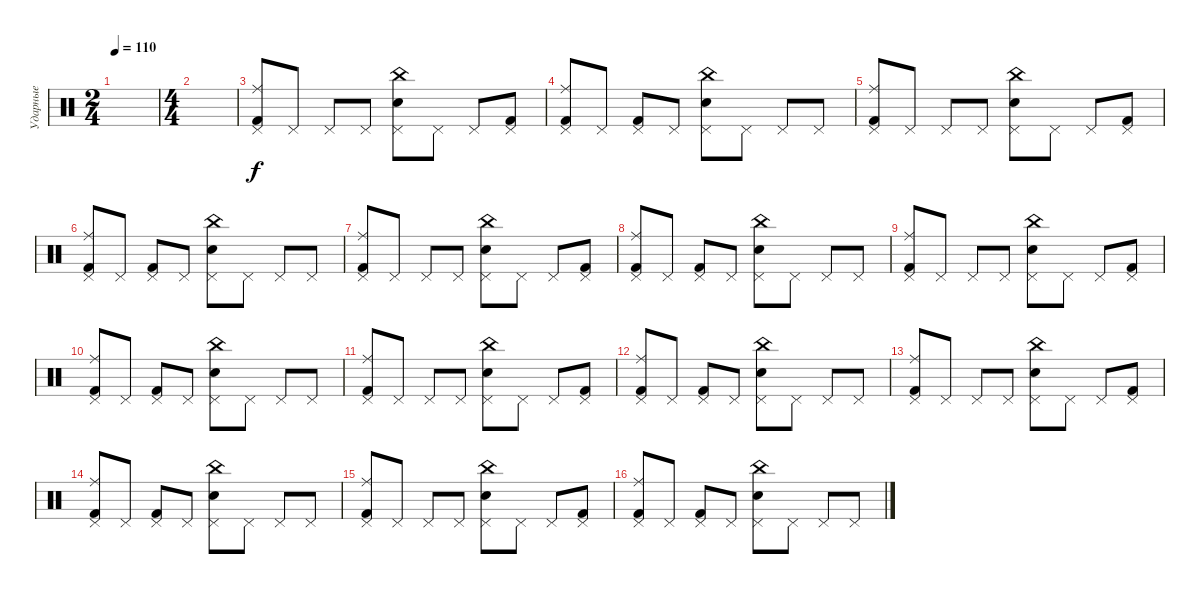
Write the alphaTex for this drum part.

\track ("Ударные" "Ударные") {instrument percussion}
\staff {score}
\articulation defaults
\ts (2 4)
\tempo 110
\clef neutral
\ks c
|
\ts (4 4)
|
("Pedal Hi-Hat (hit)" "Ride (middle)" "Kick (hit) 2").8 "Pedal Hi-Hat (hit)".8 "Pedal Hi-Hat (hit)".8 "Pedal Hi-Hat (hit)".8 ("Pedal Hi-Hat (hit)" "Electric Snare (hit)" "China (hit)").8 "Pedal Hi-Hat (hit)".8 "Pedal Hi-Hat (hit)".8 ("Pedal Hi-Hat (hit)" "Kick (hit) 2").8 |
("Pedal Hi-Hat (hit)" "Ride (middle)" "Kick (hit) 2").8 "Pedal Hi-Hat (hit)".8 ("Pedal Hi-Hat (hit)" "Kick (hit) 2").8 "Pedal Hi-Hat (hit)".8 ("Pedal Hi-Hat (hit)" "Electric Snare (hit)" "China (hit)").8 "Pedal Hi-Hat (hit)".8 "Pedal Hi-Hat (hit)".8 "Pedal Hi-Hat (hit)".8 |
("Pedal Hi-Hat (hit)" "Ride (middle)" "Kick (hit) 2").8 "Pedal Hi-Hat (hit)".8 "Pedal Hi-Hat (hit)".8 "Pedal Hi-Hat (hit)".8 ("Pedal Hi-Hat (hit)" "Electric Snare (hit)" "China (hit)").8 "Pedal Hi-Hat (hit)".8 "Pedal Hi-Hat (hit)".8 ("Pedal Hi-Hat (hit)" "Kick (hit) 2").8 |
("Pedal Hi-Hat (hit)" "Ride (middle)" "Kick (hit) 2").8 "Pedal Hi-Hat (hit)".8 ("Pedal Hi-Hat (hit)" "Kick (hit) 2").8 "Pedal Hi-Hat (hit)".8 ("Pedal Hi-Hat (hit)" "Electric Snare (hit)" "China (hit)").8 "Pedal Hi-Hat (hit)".8 "Pedal Hi-Hat (hit)".8 "Pedal Hi-Hat (hit)".8 |
("Pedal Hi-Hat (hit)" "Ride (middle)" "Kick (hit) 2").8 "Pedal Hi-Hat (hit)".8 "Pedal Hi-Hat (hit)".8 "Pedal Hi-Hat (hit)".8 ("Pedal Hi-Hat (hit)" "Electric Snare (hit)" "China (hit)").8 "Pedal Hi-Hat (hit)".8 "Pedal Hi-Hat (hit)".8 ("Pedal Hi-Hat (hit)" "Kick (hit) 2").8 |
("Pedal Hi-Hat (hit)" "Ride (middle)" "Kick (hit) 2").8 "Pedal Hi-Hat (hit)".8 ("Pedal Hi-Hat (hit)" "Kick (hit) 2").8 "Pedal Hi-Hat (hit)".8 ("Pedal Hi-Hat (hit)" "Electric Snare (hit)" "China (hit)").8 "Pedal Hi-Hat (hit)".8 "Pedal Hi-Hat (hit)".8 "Pedal Hi-Hat (hit)".8 |
("Pedal Hi-Hat (hit)" "Ride (middle)" "Kick (hit) 2").8 "Pedal Hi-Hat (hit)".8 "Pedal Hi-Hat (hit)".8 "Pedal Hi-Hat (hit)".8 ("Pedal Hi-Hat (hit)" "Electric Snare (hit)" "China (hit)").8 "Pedal Hi-Hat (hit)".8 "Pedal Hi-Hat (hit)".8 ("Pedal Hi-Hat (hit)" "Kick (hit) 2").8 |
("Pedal Hi-Hat (hit)" "Ride (middle)" "Kick (hit) 2").8 "Pedal Hi-Hat (hit)".8 ("Pedal Hi-Hat (hit)" "Kick (hit) 2").8 "Pedal Hi-Hat (hit)".8 ("Pedal Hi-Hat (hit)" "Electric Snare (hit)" "China (hit)").8 "Pedal Hi-Hat (hit)".8 "Pedal Hi-Hat (hit)".8 "Pedal Hi-Hat (hit)".8 |
("Pedal Hi-Hat (hit)" "Ride (middle)" "Kick (hit) 2").8 "Pedal Hi-Hat (hit)".8 "Pedal Hi-Hat (hit)".8 "Pedal Hi-Hat (hit)".8 ("Pedal Hi-Hat (hit)" "Electric Snare (hit)" "China (hit)").8 "Pedal Hi-Hat (hit)".8 "Pedal Hi-Hat (hit)".8 ("Pedal Hi-Hat (hit)" "Kick (hit) 2").8 |
("Pedal Hi-Hat (hit)" "Ride (middle)" "Kick (hit) 2").8 "Pedal Hi-Hat (hit)".8 ("Pedal Hi-Hat (hit)" "Kick (hit) 2").8 "Pedal Hi-Hat (hit)".8 ("Pedal Hi-Hat (hit)" "Electric Snare (hit)" "China (hit)").8 "Pedal Hi-Hat (hit)".8 "Pedal Hi-Hat (hit)".8 "Pedal Hi-Hat (hit)".8 |
("Pedal Hi-Hat (hit)" "Ride (middle)" "Kick (hit) 2").8 "Pedal Hi-Hat (hit)".8 "Pedal Hi-Hat (hit)".8 "Pedal Hi-Hat (hit)".8 ("Pedal Hi-Hat (hit)" "Electric Snare (hit)" "China (hit)").8 "Pedal Hi-Hat (hit)".8 "Pedal Hi-Hat (hit)".8 ("Pedal Hi-Hat (hit)" "Kick (hit) 2").8 |
("Pedal Hi-Hat (hit)" "Ride (middle)" "Kick (hit) 2").8 "Pedal Hi-Hat (hit)".8 ("Pedal Hi-Hat (hit)" "Kick (hit) 2").8 "Pedal Hi-Hat (hit)".8 ("Pedal Hi-Hat (hit)" "Electric Snare (hit)" "China (hit)").8 "Pedal Hi-Hat (hit)".8 "Pedal Hi-Hat (hit)".8 "Pedal Hi-Hat (hit)".8 |
("Pedal Hi-Hat (hit)" "Ride (middle)" "Kick (hit) 2").8 "Pedal Hi-Hat (hit)".8 "Pedal Hi-Hat (hit)".8 "Pedal Hi-Hat (hit)".8 ("Pedal Hi-Hat (hit)" "Electric Snare (hit)" "China (hit)").8 "Pedal Hi-Hat (hit)".8 "Pedal Hi-Hat (hit)".8 ("Pedal Hi-Hat (hit)" "Kick (hit) 2").8 |
("Pedal Hi-Hat (hit)" "Ride (middle)" "Kick (hit) 2").8 "Pedal Hi-Hat (hit)".8 ("Pedal Hi-Hat (hit)" "Kick (hit) 2").8 "Pedal Hi-Hat (hit)".8 ("Pedal Hi-Hat (hit)" "Electric Snare (hit)" "China (hit)").8 "Pedal Hi-Hat (hit)".8 "Pedal Hi-Hat (hit)".8 "Pedal Hi-Hat (hit)".8
